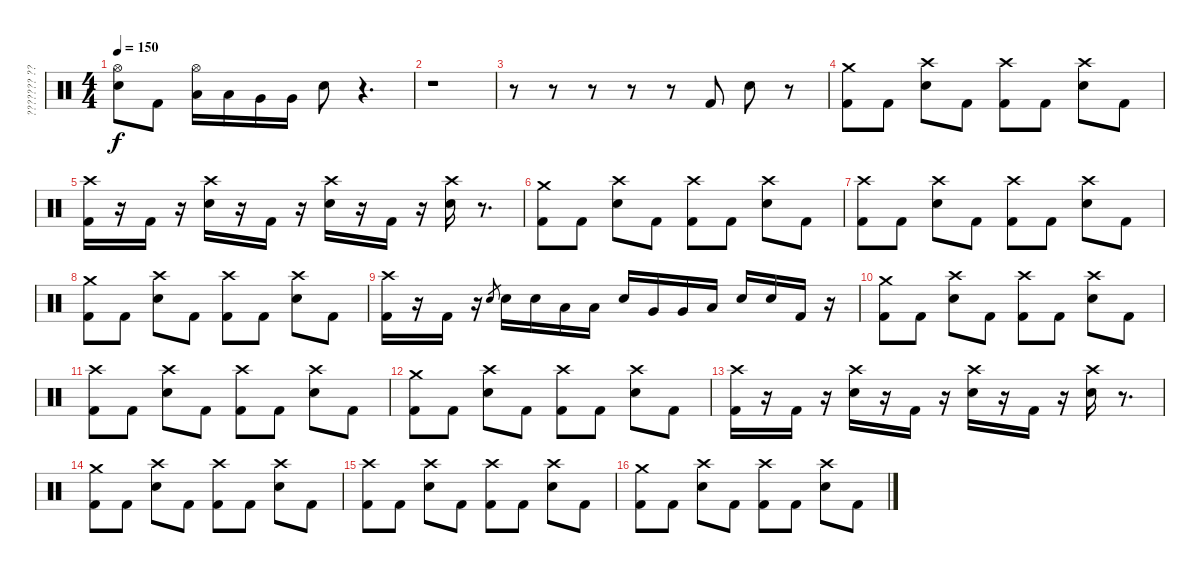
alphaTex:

\track ("??????? ?????????" "??????? ??") {instrument percussion}
\staff {score}
\articulation defaults
\ts (4 4)
\tempo 150
\clef neutral
\ks c
("Hi-Hat (open)" "Electric Snare (hit)").8{dy f} "Kick (hit) 2".8 ("Hi-Hat (open)" "Low Tom (hit)").16 "Low Tom (hit)".16 "Very Low Tom (hit)".16 "Very Low Tom (hit)".16 "Electric Snare (hit)".8 r.4{d} |
r.1 |
r.8 r.8 r.8 r.8 r.8 "Kick (hit) 2".8 "Electric Snare (hit)".8 r.8 |
("Crash medium (hit)" "Kick (hit) 2").8 "Kick (hit) 2".8 ("Crash high (hit)" "Electric Snare (hit)").8 "Kick (hit) 2".8 ("Crash high (hit)" "Kick (hit) 2").8 "Kick (hit) 2".8 ("Crash high (hit)" "Electric Snare (hit)").8 "Kick (hit) 2".8 |
("Crash high (hit)" "Kick (hit) 2").16 r.16 "Kick (hit) 2".16 r.16 ("Crash high (hit)" "Electric Snare (hit)").16 r.16 "Kick (hit) 2".16 r.16 ("Crash high (hit)" "Electric Snare (hit)").16 r.16 "Kick (hit) 2".16 r.16 ("Crash high (hit)" "Electric Snare (hit)").16 r.8{d} |
("Crash medium (hit)" "Kick (hit) 2").8 "Kick (hit) 2".8 ("Crash high (hit)" "Electric Snare (hit)").8 "Kick (hit) 2".8 ("Crash high (hit)" "Kick (hit) 2").8 "Kick (hit) 2".8 ("Crash high (hit)" "Electric Snare (hit)").8 "Kick (hit) 2".8 |
("Crash high (hit)" "Kick (hit) 2").8 "Kick (hit) 2".8 ("Crash high (hit)" "Electric Snare (hit)").8 "Kick (hit) 2".8 ("Crash high (hit)" "Kick (hit) 2").8 "Kick (hit) 2".8 ("Crash high (hit)" "Electric Snare (hit)").8 "Kick (hit) 2".8 |
("Crash medium (hit)" "Kick (hit) 2").8 "Kick (hit) 2".8 ("Crash high (hit)" "Electric Snare (hit)").8 "Kick (hit) 2".8 ("Crash high (hit)" "Kick (hit) 2").8 "Kick (hit) 2".8 ("Crash high (hit)" "Electric Snare (hit)").8 "Kick (hit) 2".8 |
("Crash high (hit)" "Kick (hit) 2").16 r.16 "Kick (hit) 2".16 r.16 "Electric Snare (hit)".8{gr} "Electric Snare (hit)".16 "Electric Snare (hit)".16 "Low Tom (hit)".16 "Low Tom (hit)".16 "Electric Snare (hit)".16 "Very Low Tom (hit)".16 "Very Low Tom (hit)".16 "Low Tom (hit)".16 "Electric Snare (hit)".16 "Electric Snare (hit)".16 "Kick (hit) 2".16 r.16 |
("Crash medium (hit)" "Kick (hit) 2").8 "Kick (hit) 2".8 ("Crash high (hit)" "Electric Snare (hit)").8 "Kick (hit) 2".8 ("Crash high (hit)" "Kick (hit) 2").8 "Kick (hit) 2".8 ("Crash high (hit)" "Electric Snare (hit)").8 "Kick (hit) 2".8 |
("Crash high (hit)" "Kick (hit) 2").8 "Kick (hit) 2".8 ("Crash high (hit)" "Electric Snare (hit)").8 "Kick (hit) 2".8 ("Crash high (hit)" "Kick (hit) 2").8 "Kick (hit) 2".8 ("Crash high (hit)" "Electric Snare (hit)").8 "Kick (hit) 2".8 |
("Crash medium (hit)" "Kick (hit) 2").8 "Kick (hit) 2".8 ("Crash high (hit)" "Electric Snare (hit)").8 "Kick (hit) 2".8 ("Crash high (hit)" "Kick (hit) 2").8 "Kick (hit) 2".8 ("Crash high (hit)" "Electric Snare (hit)").8 "Kick (hit) 2".8 |
("Crash high (hit)" "Kick (hit) 2").16 r.16 "Kick (hit) 2".16 r.16 ("Crash high (hit)" "Electric Snare (hit)").16 r.16 "Kick (hit) 2".16 r.16 ("Crash high (hit)" "Electric Snare (hit)").16 r.16 "Kick (hit) 2".16 r.16 ("Crash high (hit)" "Electric Snare (hit)").16 r.8{d} |
("Crash medium (hit)" "Kick (hit) 2").8 "Kick (hit) 2".8 ("Crash high (hit)" "Electric Snare (hit)").8 "Kick (hit) 2".8 ("Crash high (hit)" "Kick (hit) 2").8 "Kick (hit) 2".8 ("Crash high (hit)" "Electric Snare (hit)").8 "Kick (hit) 2".8 |
("Crash high (hit)" "Kick (hit) 2").8 "Kick (hit) 2".8 ("Crash high (hit)" "Electric Snare (hit)").8 "Kick (hit) 2".8 ("Crash high (hit)" "Kick (hit) 2").8 "Kick (hit) 2".8 ("Crash high (hit)" "Electric Snare (hit)").8 "Kick (hit) 2".8 |
("Crash medium (hit)" "Kick (hit) 2").8 "Kick (hit) 2".8 ("Crash high (hit)" "Electric Snare (hit)").8 "Kick (hit) 2".8 ("Crash high (hit)" "Kick (hit) 2").8 "Kick (hit) 2".8 ("Crash high (hit)" "Electric Snare (hit)").8 "Kick (hit) 2".8
